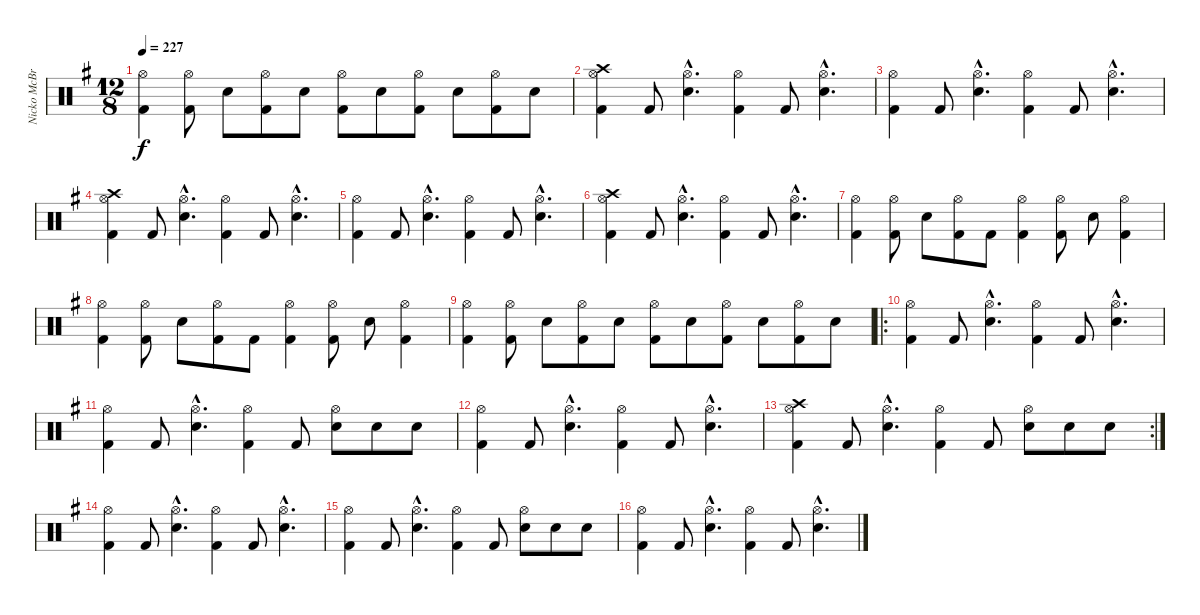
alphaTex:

\track ("Nicko McBrain" "Nicko McBr") {instrument percussion}
\staff {score}
\articulation defaults
\ts (12 8)
\tempo 227
\clef neutral
\ks g
("Kick (hit) 2" "Hi-Hat (open)").4{dy f} ("Kick (hit) 2" "Hi-Hat (open)").8 "Snare (hit) 2".8 ("Kick (hit) 2" "Hi-Hat (open)").8 "Snare (hit) 2".8 ("Kick (hit) 2" "Hi-Hat (open)").8 "Snare (hit) 2".8 ("Kick (hit) 2" "Hi-Hat (open)").8 "Snare (hit) 2".8 ("Kick (hit) 2" "Hi-Hat (open)").8 "Snare (hit) 2".8 |
("Kick (hit) 2" "Hi-Hat (open)" "Crash high (hit)").4 "Kick (hit) 2".8 ("Snare (hit) 2"{hac} "Hi-Hat (open)"{hac}).4{d} ("Kick (hit) 2" "Hi-Hat (open)").4 "Kick (hit) 2".8 ("Snare (hit) 2"{hac} "Hi-Hat (open)"{hac}).4{d} |
("Kick (hit) 2" "Hi-Hat (open)").4 "Kick (hit) 2".8 ("Snare (hit) 2"{hac} "Hi-Hat (open)"{hac}).4{d} ("Kick (hit) 2" "Hi-Hat (open)").4 "Kick (hit) 2".8 ("Snare (hit) 2"{hac} "Hi-Hat (open)"{hac}).4{d} |
("Kick (hit) 2" "Hi-Hat (open)" "Crash high (hit)").4 "Kick (hit) 2".8 ("Snare (hit) 2"{hac} "Hi-Hat (open)"{hac}).4{d} ("Kick (hit) 2" "Hi-Hat (open)").4 "Kick (hit) 2".8 ("Snare (hit) 2"{hac} "Hi-Hat (open)"{hac}).4{d} |
("Kick (hit) 2" "Hi-Hat (open)").4 "Kick (hit) 2".8 ("Snare (hit) 2"{hac} "Hi-Hat (open)"{hac}).4{d} ("Kick (hit) 2" "Hi-Hat (open)").4 "Kick (hit) 2".8 ("Snare (hit) 2"{hac} "Hi-Hat (open)"{hac}).4{d} |
("Kick (hit) 2" "Hi-Hat (open)" "Crash high (hit)").4 "Kick (hit) 2".8 ("Snare (hit) 2"{hac} "Hi-Hat (open)"{hac}).4{d} ("Kick (hit) 2" "Hi-Hat (open)").4 "Kick (hit) 2".8 ("Snare (hit) 2"{hac} "Hi-Hat (open)"{hac}).4{d} |
("Kick (hit) 2" "Hi-Hat (open)").4 ("Kick (hit) 2" "Hi-Hat (open)").8 "Snare (hit) 2".8 ("Kick (hit) 2" "Hi-Hat (open)").8 "Kick (hit) 2".8 ("Kick (hit) 2" "Hi-Hat (open)").4 ("Kick (hit) 2" "Hi-Hat (open)").8 "Snare (hit) 2".8 ("Kick (hit) 2" "Hi-Hat (open)").4 |
("Kick (hit) 2" "Hi-Hat (open)").4 ("Kick (hit) 2" "Hi-Hat (open)").8 "Snare (hit) 2".8 ("Kick (hit) 2" "Hi-Hat (open)").8 "Kick (hit) 2".8 ("Kick (hit) 2" "Hi-Hat (open)").4 ("Kick (hit) 2" "Hi-Hat (open)").8 "Snare (hit) 2".8 ("Kick (hit) 2" "Hi-Hat (open)").4 |
("Kick (hit) 2" "Hi-Hat (open)").4 ("Kick (hit) 2" "Hi-Hat (open)").8 "Snare (hit) 2".8 ("Kick (hit) 2" "Hi-Hat (open)").8 "Snare (hit) 2".8 ("Kick (hit) 2" "Hi-Hat (open)").8 "Snare (hit) 2".8 ("Kick (hit) 2" "Hi-Hat (open)").8 "Snare (hit) 2".8 ("Kick (hit) 2" "Hi-Hat (open)").8 "Snare (hit) 2".8 |
\ro
("Kick (hit) 2" "Hi-Hat (open)").4 "Kick (hit) 2".8 ("Snare (hit) 2"{hac} "Hi-Hat (open)"{hac}).4{d} ("Kick (hit) 2" "Hi-Hat (open)").4 "Kick (hit) 2".8 ("Snare (hit) 2"{hac} "Hi-Hat (open)"{hac}).4{d} |
("Kick (hit) 2" "Hi-Hat (open)").4 "Kick (hit) 2".8 ("Snare (hit) 2"{hac} "Hi-Hat (open)"{hac}).4{d} ("Kick (hit) 2" "Hi-Hat (open)").4 "Kick (hit) 2".8 ("Snare (hit) 2" "Hi-Hat (open)").8 "Snare (hit) 2".8 "Snare (hit) 2".8 |
("Kick (hit) 2" "Hi-Hat (open)").4 "Kick (hit) 2".8 ("Snare (hit) 2"{hac} "Hi-Hat (open)"{hac}).4{d} ("Kick (hit) 2" "Hi-Hat (open)").4 "Kick (hit) 2".8 ("Snare (hit) 2"{hac} "Hi-Hat (open)"{hac}).4{d} |
\rc 2
("Kick (hit) 2" "Hi-Hat (open)" "Crash high (hit)").4 "Kick (hit) 2".8 ("Snare (hit) 2"{hac} "Hi-Hat (open)"{hac}).4{d} ("Kick (hit) 2" "Hi-Hat (open)").4 "Kick (hit) 2".8 ("Snare (hit) 2" "Hi-Hat (open)").8 "Snare (hit) 2".8 "Snare (hit) 2".8 |
("Kick (hit) 2" "Hi-Hat (open)").4 "Kick (hit) 2".8 ("Snare (hit) 2"{hac} "Hi-Hat (open)"{hac}).4{d} ("Kick (hit) 2" "Hi-Hat (open)").4 "Kick (hit) 2".8 ("Snare (hit) 2"{hac} "Hi-Hat (open)"{hac}).4{d} |
("Kick (hit) 2" "Hi-Hat (open)").4 "Kick (hit) 2".8 ("Snare (hit) 2"{hac} "Hi-Hat (open)"{hac}).4{d} ("Kick (hit) 2" "Hi-Hat (open)").4 "Kick (hit) 2".8 ("Snare (hit) 2" "Hi-Hat (open)").8 "Snare (hit) 2".8 "Snare (hit) 2".8 |
("Kick (hit) 2" "Hi-Hat (open)").4 "Kick (hit) 2".8 ("Snare (hit) 2"{hac} "Hi-Hat (open)"{hac}).4{d} ("Kick (hit) 2" "Hi-Hat (open)").4 "Kick (hit) 2".8 ("Snare (hit) 2"{hac} "Hi-Hat (open)"{hac}).4{d}
